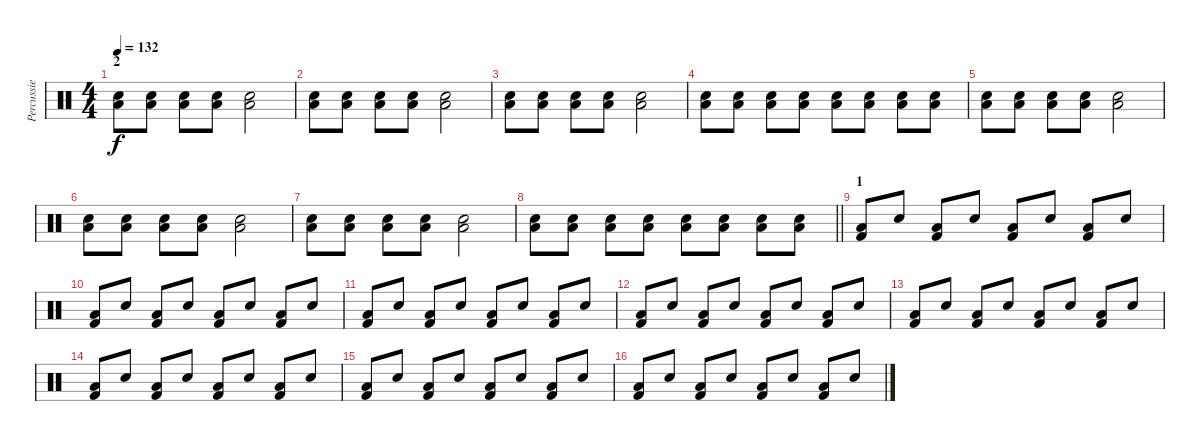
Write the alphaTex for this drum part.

\track ("Percussie" "Percussie") {instrument percussion}
\staff {score}
\articulation defaults
\ts (4 4)
\section ("" "2")
\tempo 132
\clef neutral
\ks c
("Low Floor Tom (hit)" "Snare (hit) 2").8{dy f} ("Low Floor Tom (hit)" "Snare (hit) 2").8 ("Low Floor Tom (hit)" "Snare (hit) 2").8 ("Low Floor Tom (hit)" "Snare (hit) 2").8 ("Low Floor Tom (hit)" "Snare (hit) 2").2 |
("Low Floor Tom (hit)" "Snare (hit) 2").8 ("Low Floor Tom (hit)" "Snare (hit) 2").8 ("Low Floor Tom (hit)" "Snare (hit) 2").8 ("Low Floor Tom (hit)" "Snare (hit) 2").8 ("Low Floor Tom (hit)" "Snare (hit) 2").2 |
("Low Floor Tom (hit)" "Snare (hit) 2").8 ("Low Floor Tom (hit)" "Snare (hit) 2").8 ("Low Floor Tom (hit)" "Snare (hit) 2").8 ("Low Floor Tom (hit)" "Snare (hit) 2").8 ("Low Floor Tom (hit)" "Snare (hit) 2").2 |
("Low Floor Tom (hit)" "Snare (hit) 2").8 ("Low Floor Tom (hit)" "Snare (hit) 2").8 ("Low Floor Tom (hit)" "Snare (hit) 2").8 ("Low Floor Tom (hit)" "Snare (hit) 2").8 ("Low Floor Tom (hit)" "Snare (hit) 2").8 ("Low Floor Tom (hit)" "Snare (hit) 2").8 ("Low Floor Tom (hit)" "Snare (hit) 2").8 ("Low Floor Tom (hit)" "Snare (hit) 2").8 |
("Low Floor Tom (hit)" "Snare (hit) 2").8 ("Low Floor Tom (hit)" "Snare (hit) 2").8 ("Low Floor Tom (hit)" "Snare (hit) 2").8 ("Low Floor Tom (hit)" "Snare (hit) 2").8 ("Low Floor Tom (hit)" "Snare (hit) 2").2 |
("Low Floor Tom (hit)" "Snare (hit) 2").8 ("Low Floor Tom (hit)" "Snare (hit) 2").8 ("Low Floor Tom (hit)" "Snare (hit) 2").8 ("Low Floor Tom (hit)" "Snare (hit) 2").8 ("Low Floor Tom (hit)" "Snare (hit) 2").2 |
("Low Floor Tom (hit)" "Snare (hit) 2").8 ("Low Floor Tom (hit)" "Snare (hit) 2").8 ("Low Floor Tom (hit)" "Snare (hit) 2").8 ("Low Floor Tom (hit)" "Snare (hit) 2").8 ("Low Floor Tom (hit)" "Snare (hit) 2").2 |
\barLineRight lightlight
("Low Floor Tom (hit)" "Snare (hit) 2").8 ("Low Floor Tom (hit)" "Snare (hit) 2").8 ("Low Floor Tom (hit)" "Snare (hit) 2").8 ("Low Floor Tom (hit)" "Snare (hit) 2").8 ("Low Floor Tom (hit)" "Snare (hit) 2").8 ("Low Floor Tom (hit)" "Snare (hit) 2").8 ("Low Floor Tom (hit)" "Snare (hit) 2").8 ("Low Floor Tom (hit)" "Snare (hit) 2").8 |
\section ("" "1")
("Low Floor Tom (hit)" "Kick (hit) 2").8 "Snare (hit) 2".8 ("Low Floor Tom (hit)" "Kick (hit) 2").8 "Snare (hit) 2".8 ("Low Floor Tom (hit)" "Kick (hit) 2").8 "Snare (hit) 2".8 ("Low Floor Tom (hit)" "Kick (hit) 2").8 "Snare (hit) 2".8 |
("Low Floor Tom (hit)" "Kick (hit) 2").8 "Snare (hit) 2".8 ("Low Floor Tom (hit)" "Kick (hit) 2").8 "Snare (hit) 2".8 ("Low Floor Tom (hit)" "Kick (hit) 2").8 "Snare (hit) 2".8 ("Low Floor Tom (hit)" "Kick (hit) 2").8 "Snare (hit) 2".8 |
("Low Floor Tom (hit)" "Kick (hit) 2").8 "Snare (hit) 2".8 ("Low Floor Tom (hit)" "Kick (hit) 2").8 "Snare (hit) 2".8 ("Low Floor Tom (hit)" "Kick (hit) 2").8 "Snare (hit) 2".8 ("Low Floor Tom (hit)" "Kick (hit) 2").8 "Snare (hit) 2".8 |
("Low Floor Tom (hit)" "Kick (hit) 2").8 "Snare (hit) 2".8 ("Low Floor Tom (hit)" "Kick (hit) 2").8 "Snare (hit) 2".8 ("Low Floor Tom (hit)" "Kick (hit) 2").8 "Snare (hit) 2".8 ("Low Floor Tom (hit)" "Kick (hit) 2").8 "Snare (hit) 2".8 |
("Low Floor Tom (hit)" "Kick (hit) 2").8 "Snare (hit) 2".8 ("Low Floor Tom (hit)" "Kick (hit) 2").8 "Snare (hit) 2".8 ("Low Floor Tom (hit)" "Kick (hit) 2").8 "Snare (hit) 2".8 ("Low Floor Tom (hit)" "Kick (hit) 2").8 "Snare (hit) 2".8 |
("Low Floor Tom (hit)" "Kick (hit) 2").8 "Snare (hit) 2".8 ("Low Floor Tom (hit)" "Kick (hit) 2").8 "Snare (hit) 2".8 ("Low Floor Tom (hit)" "Kick (hit) 2").8 "Snare (hit) 2".8 ("Low Floor Tom (hit)" "Kick (hit) 2").8 "Snare (hit) 2".8 |
("Low Floor Tom (hit)" "Kick (hit) 2").8 "Snare (hit) 2".8 ("Low Floor Tom (hit)" "Kick (hit) 2").8 "Snare (hit) 2".8 ("Low Floor Tom (hit)" "Kick (hit) 2").8 "Snare (hit) 2".8 ("Low Floor Tom (hit)" "Kick (hit) 2").8 "Snare (hit) 2".8 |
("Low Floor Tom (hit)" "Kick (hit) 2").8 "Snare (hit) 2".8 ("Low Floor Tom (hit)" "Kick (hit) 2").8 "Snare (hit) 2".8 ("Low Floor Tom (hit)" "Kick (hit) 2").8 "Snare (hit) 2".8 ("Low Floor Tom (hit)" "Kick (hit) 2").8 "Snare (hit) 2".8
